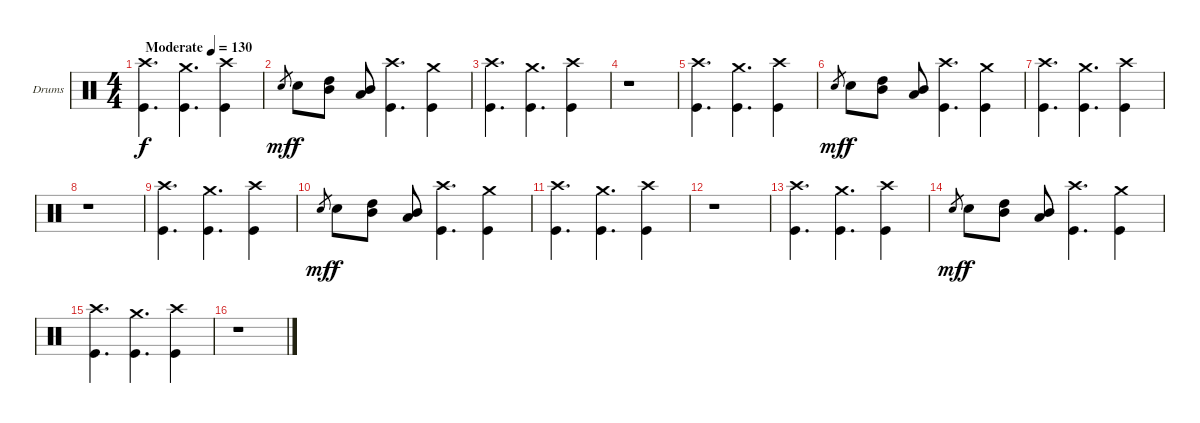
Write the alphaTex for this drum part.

\bracketExtendMode groupsimilarinstruments
\firstSystemTrackNameOrientation horizontal
\otherSystemsTrackNameOrientation horizontal
\track ("Drumkit" "Drums") {instrument percussion}
\staff {score}
\articulation defaults
\ts (4 4)
\beaming (8 2 2 2 2)
\tempo (130 "Moderate")
\clef neutral
\ks c
("Crash high (hit)" "Kick (hit)").4{d dy f} ("Crash medium (hit)" "Kick (hit)").4{d} ("Crash high (hit)" "Kick (hit)").4 |
"Snare (hit) 2".8{gr dy mf} "Snare (hit) 2".8{dy f} ("High Tom (hit)" "Mid Tom (hit)").8 ("Mid Tom (hit)" "Low Tom (hit)").8 ("Crash high (hit)" "Kick (hit)").4{d} ("Crash medium (hit)" "Kick (hit)").4 |
("Crash high (hit)" "Kick (hit)").4{d} ("Crash medium (hit)" "Kick (hit)").4{d} ("Crash high (hit)" "Kick (hit)").4 |
r.1 |
("Crash high (hit)" "Kick (hit)").4{d} ("Crash medium (hit)" "Kick (hit)").4{d} ("Crash high (hit)" "Kick (hit)").4 |
"Snare (hit) 2".8{gr dy mf} "Snare (hit) 2".8{dy f} ("High Tom (hit)" "Mid Tom (hit)").8 ("Mid Tom (hit)" "Low Tom (hit)").8 ("Crash high (hit)" "Kick (hit)").4{d} ("Crash medium (hit)" "Kick (hit)").4 |
("Crash high (hit)" "Kick (hit)").4{d} ("Crash medium (hit)" "Kick (hit)").4{d} ("Crash high (hit)" "Kick (hit)").4 |
r.1 |
("Crash high (hit)" "Kick (hit)").4{d} ("Crash medium (hit)" "Kick (hit)").4{d} ("Crash high (hit)" "Kick (hit)").4 |
"Snare (hit) 2".8{gr dy mf} "Snare (hit) 2".8{dy f} ("High Tom (hit)" "Mid Tom (hit)").8 ("Mid Tom (hit)" "Low Tom (hit)").8 ("Crash high (hit)" "Kick (hit)").4{d} ("Crash medium (hit)" "Kick (hit)").4 |
("Crash high (hit)" "Kick (hit)").4{d} ("Crash medium (hit)" "Kick (hit)").4{d} ("Crash high (hit)" "Kick (hit)").4 |
r.1 |
("Crash high (hit)" "Kick (hit)").4{d} ("Crash medium (hit)" "Kick (hit)").4{d} ("Crash high (hit)" "Kick (hit)").4 |
"Snare (hit) 2".8{gr dy mf} "Snare (hit) 2".8{dy f} ("High Tom (hit)" "Mid Tom (hit)").8 ("Mid Tom (hit)" "Low Tom (hit)").8 ("Crash high (hit)" "Kick (hit)").4{d} ("Crash medium (hit)" "Kick (hit)").4 |
("Crash high (hit)" "Kick (hit)").4{d} ("Crash medium (hit)" "Kick (hit)").4{d} ("Crash high (hit)" "Kick (hit)").4 |
r.1
